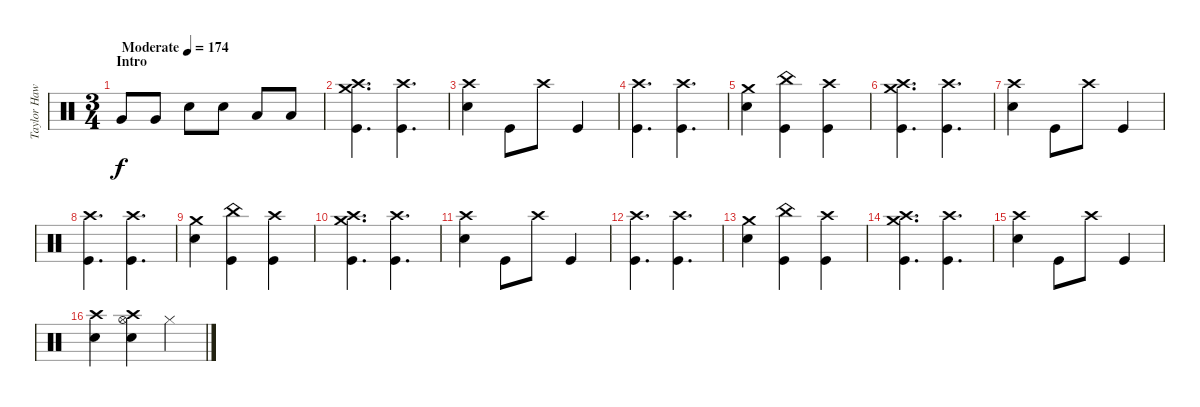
\track ("Taylor Hawkins - Drums" "Taylor Haw") {instrument percussion}
\staff {score}
\articulation defaults
\ts (3 4)
\section ("" "Intro")
\tempo (174 "Moderate")
\clef neutral
\ks c "Very Low Tom (hit)".8{dy f} "Very Low Tom (hit)".8 "Snare (hit) 2".8 "Snare (hit) 2".8 "Low Floor Tom (hit)".8 "Low Floor Tom (hit)".8
|
("Crash high (hit)" "Crash medium (hit)" "Kick (hit)").4{d} ("Crash high (hit)" "Kick (hit)").4{d} |
("Snare (hit) 2" "Crash high (hit)").4 "Kick (hit)".8 "Crash high (hit)".8 "Kick (hit)".4 |
("Crash high (hit)" "Kick (hit)").4{d} ("Crash high (hit)" "Kick (hit)").4{d} |
("Snare (hit) 2" "Crash medium (hit)").4 ("China (hit)" "Kick (hit)").4 ("Crash high (hit)" "Kick (hit)").4 |
("Crash high (hit)" "Crash medium (hit)" "Kick (hit)").4{d} ("Crash high (hit)" "Kick (hit)").4{d} |
("Snare (hit) 2" "Crash high (hit)").4 "Kick (hit)".8 "Crash high (hit)".8 "Kick (hit)".4 |
("Crash high (hit)" "Kick (hit)").4{d} ("Crash high (hit)" "Kick (hit)").4{d} |
("Snare (hit) 2" "Crash medium (hit)").4 ("China (hit)" "Kick (hit)").4 ("Crash high (hit)" "Kick (hit)").4 |
("Crash high (hit)" "Crash medium (hit)" "Kick (hit)").4{d} ("Crash high (hit)" "Kick (hit)").4{d} |
("Snare (hit) 2" "Crash high (hit)").4 "Kick (hit)".8 "Crash high (hit)".8 "Kick (hit)".4 |
("Crash high (hit)" "Kick (hit)").4{d} ("Crash high (hit)" "Kick (hit)").4{d} |
("Snare (hit) 2" "Crash medium (hit)").4 ("China (hit)" "Kick (hit)").4 ("Crash high (hit)" "Kick (hit)").4 |
("Crash high (hit)" "Crash medium (hit)" "Kick (hit)").4{d} ("Crash high (hit)" "Kick (hit)").4{d} |
("Snare (hit) 2" "Crash high (hit)").4 "Kick (hit)".8 "Crash high (hit)".8 "Kick (hit)".4 |
("Snare (hit) 2" "Crash high (hit)").4 ("Hi-Hat (open)" "Crash high (hit)" "Snare (hit) 2").4 "Hi-Hat (closed)".4
